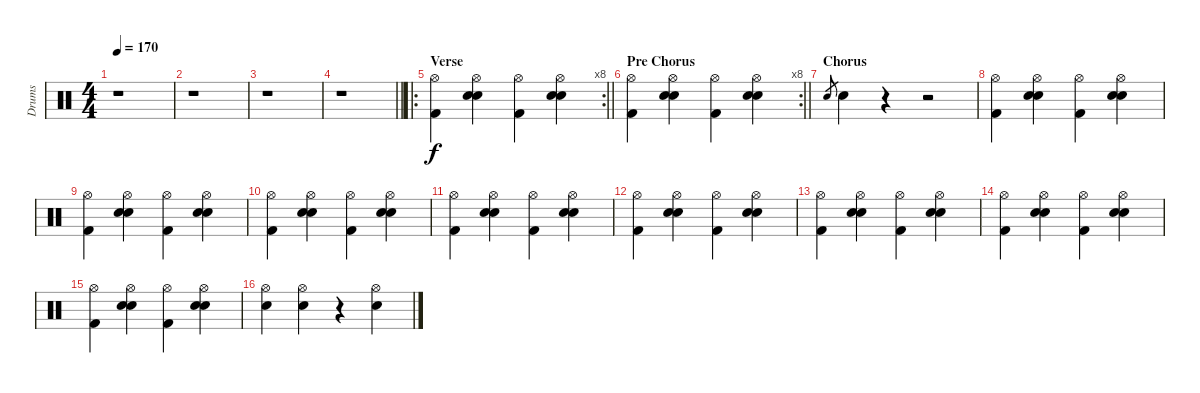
\track ("Drums" "Drums") {instrument percussion}
\staff {score}
\articulation defaults
\ts (4 4)
\tempo 170
\clef neutral
\ks c
r.1{dy f} |
r.1 |
r.1 |
\barLineRight lightlight
r.1 |
\ro
\rc 8
\section ("" "Verse")
\barLineRight lightlight
("Hi-Hat (open)" "Kick (hit) 2").4 ("Hi-Hat (open)" "Electric Snare (hit)" "Hand Clap (hit)").4 ("Hi-Hat (open)" "Kick (hit) 2").4 ("Hi-Hat (open)" "Electric Snare (hit)" "Hand Clap (hit)").4 |
\rc 8
\section ("" "Pre Chorus")
\barLineRight lightlight
("Hi-Hat (open)" "Kick (hit) 2").4 ("Hi-Hat (open)" "Electric Snare (hit)" "Hand Clap (hit)").4 ("Hi-Hat (open)" "Kick (hit) 2").4 ("Hi-Hat (open)" "Electric Snare (hit)" "Hand Clap (hit)").4 |
\section ("" "Chorus")
"Electric Snare (hit)".8{gr} "Electric Snare (hit)".4 r.4 r.2 |
("Hi-Hat (open)" "Kick (hit) 2").4 ("Hi-Hat (open)" "Electric Snare (hit)" "Hand Clap (hit)").4 ("Hi-Hat (open)" "Kick (hit) 2").4 ("Hi-Hat (open)" "Electric Snare (hit)" "Hand Clap (hit)").4 |
("Hi-Hat (open)" "Kick (hit) 2").4 ("Hi-Hat (open)" "Electric Snare (hit)" "Hand Clap (hit)").4 ("Hi-Hat (open)" "Kick (hit) 2").4 ("Hi-Hat (open)" "Electric Snare (hit)" "Hand Clap (hit)").4 |
("Hi-Hat (open)" "Kick (hit) 2").4 ("Hi-Hat (open)" "Electric Snare (hit)" "Hand Clap (hit)").4 ("Hi-Hat (open)" "Kick (hit) 2").4 ("Hi-Hat (open)" "Electric Snare (hit)" "Hand Clap (hit)").4 |
("Hi-Hat (open)" "Kick (hit) 2").4 ("Hi-Hat (open)" "Electric Snare (hit)" "Hand Clap (hit)").4 ("Hi-Hat (open)" "Kick (hit) 2").4 ("Hi-Hat (open)" "Electric Snare (hit)" "Hand Clap (hit)").4 |
("Hi-Hat (open)" "Kick (hit) 2").4 ("Hi-Hat (open)" "Electric Snare (hit)" "Hand Clap (hit)").4 ("Hi-Hat (open)" "Kick (hit) 2").4 ("Hi-Hat (open)" "Electric Snare (hit)" "Hand Clap (hit)").4 |
("Hi-Hat (open)" "Kick (hit) 2").4 ("Hi-Hat (open)" "Electric Snare (hit)" "Hand Clap (hit)").4 ("Hi-Hat (open)" "Kick (hit) 2").4 ("Hi-Hat (open)" "Electric Snare (hit)" "Hand Clap (hit)").4 |
("Hi-Hat (open)" "Kick (hit) 2").4 ("Hi-Hat (open)" "Electric Snare (hit)" "Hand Clap (hit)").4 ("Hi-Hat (open)" "Kick (hit) 2").4 ("Hi-Hat (open)" "Electric Snare (hit)" "Hand Clap (hit)").4 |
("Hi-Hat (open)" "Kick (hit) 2").4 ("Hi-Hat (open)" "Electric Snare (hit)" "Hand Clap (hit)").4 ("Hi-Hat (open)" "Kick (hit) 2").4 ("Hi-Hat (open)" "Electric Snare (hit)" "Hand Clap (hit)").4 |
("Hi-Hat (open)" "Electric Snare (hit)").4 ("Hi-Hat (open)" "Hand Clap (hit)").4 r.4 ("Hi-Hat (open)" "Hand Clap (hit)").4
